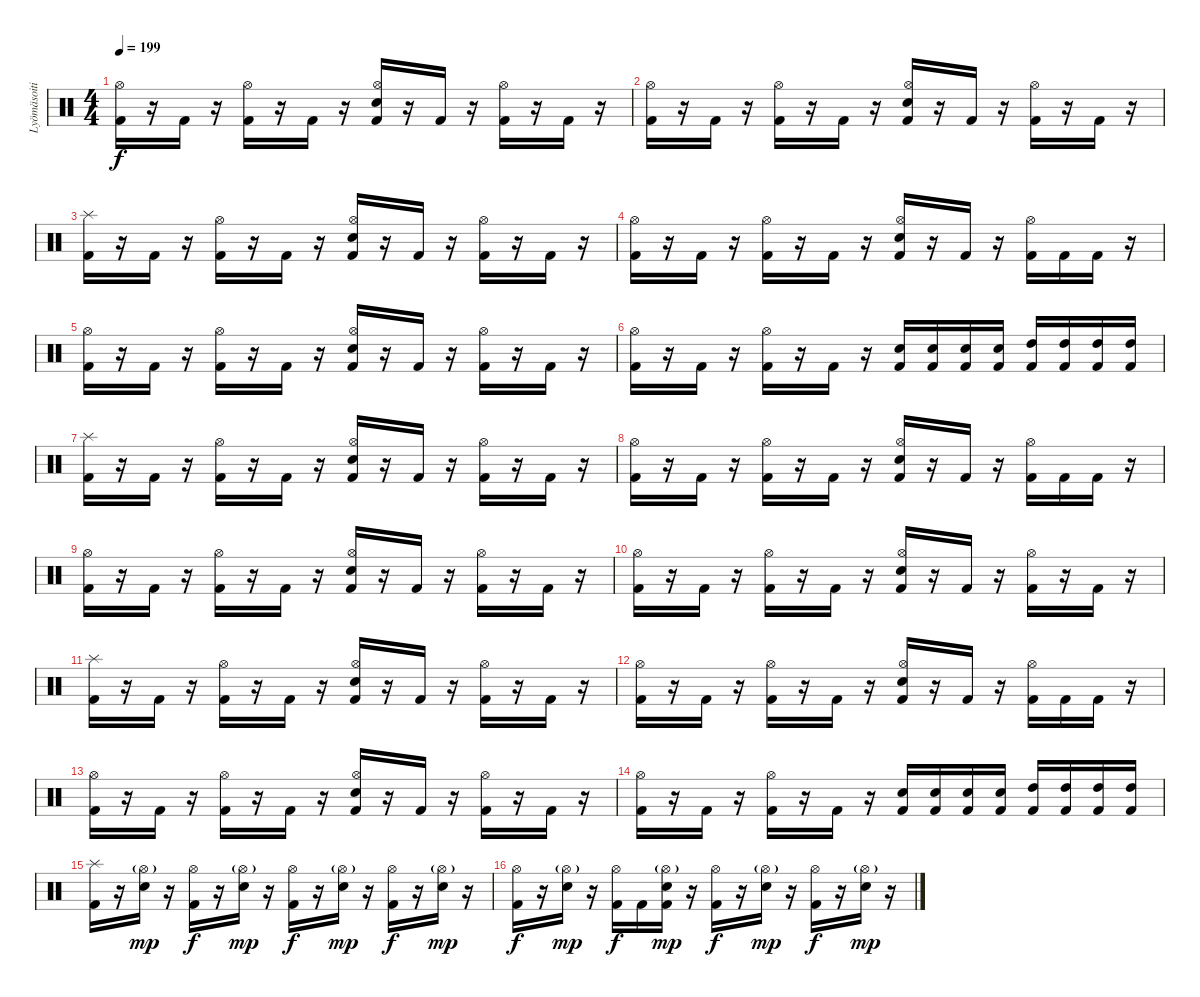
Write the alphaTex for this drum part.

\track ("Lyömäsoitin" "Lyömäsoiti") {instrument percussion}
\staff {score}
\articulation defaults
\ts (4 4)
\tempo 199
\clef neutral
\ks c
("Kick (hit) 2" "Hi-Hat (open)").16{dy f} r.16 "Kick (hit) 2".16 r.16 ("Kick (hit) 2" "Hi-Hat (open)").16 r.16 "Kick (hit) 2".16 r.16 ("Kick (hit) 2" "Hi-Hat (open)" "Snare (hit) 2").16 r.16 "Kick (hit) 2".16 r.16 ("Kick (hit) 2" "Hi-Hat (open)").16 r.16 "Kick (hit) 2".16 r.16 |
("Kick (hit) 2" "Hi-Hat (open)").16 r.16 "Kick (hit) 2".16 r.16 ("Kick (hit) 2" "Hi-Hat (open)").16 r.16 "Kick (hit) 2".16 r.16 ("Kick (hit) 2" "Hi-Hat (open)" "Snare (hit) 2").16 r.16 "Kick (hit) 2".16 r.16 ("Kick (hit) 2" "Hi-Hat (open)").16 r.16 "Kick (hit) 2".16 r.16 |
("Kick (hit) 2" "Splash (hit)").16 r.16 "Kick (hit) 2".16 r.16 ("Kick (hit) 2" "Hi-Hat (open)").16 r.16 "Kick (hit) 2".16 r.16 ("Kick (hit) 2" "Hi-Hat (open)" "Snare (hit) 2").16 r.16 "Kick (hit) 2".16 r.16 ("Kick (hit) 2" "Hi-Hat (open)").16 r.16 "Kick (hit) 2".16 r.16 |
("Kick (hit) 2" "Hi-Hat (open)").16 r.16 "Kick (hit) 2".16 r.16 ("Kick (hit) 2" "Hi-Hat (open)").16 r.16 "Kick (hit) 2".16 r.16 ("Kick (hit) 2" "Hi-Hat (open)" "Snare (hit) 2").16 r.16 "Kick (hit) 2".16 r.16 ("Kick (hit) 2" "Hi-Hat (open)").16 "Kick (hit) 2".16 "Kick (hit) 2".16 r.16 |
("Kick (hit) 2" "Hi-Hat (open)").16 r.16 "Kick (hit) 2".16 r.16 ("Kick (hit) 2" "Hi-Hat (open)").16 r.16 "Kick (hit) 2".16 r.16 ("Kick (hit) 2" "Hi-Hat (open)" "Snare (hit) 2").16 r.16 "Kick (hit) 2".16 r.16 ("Kick (hit) 2" "Hi-Hat (open)").16 r.16 "Kick (hit) 2".16 r.16 |
("Kick (hit) 2" "Hi-Hat (open)").16 r.16 "Kick (hit) 2".16 r.16 ("Kick (hit) 2" "Hi-Hat (open)").16 r.16 "Kick (hit) 2".16 r.16 ("Kick (hit) 2" "Snare (hit) 2").16 ("Kick (hit) 2" "Snare (hit) 2").16 ("Kick (hit) 2" "Snare (hit) 2").16 ("Kick (hit) 2" "Snare (hit) 2").16 ("Kick (hit) 2" "High Tom (hit)").16 ("Kick (hit) 2" "High Tom (hit)").16 ("Kick (hit) 2" "High Tom (hit)").16 ("Kick (hit) 2" "High Tom (hit)").16 |
("Kick (hit) 2" "Splash (hit)").16 r.16 "Kick (hit) 2".16 r.16 ("Kick (hit) 2" "Hi-Hat (open)").16 r.16 "Kick (hit) 2".16 r.16 ("Kick (hit) 2" "Hi-Hat (open)" "Snare (hit) 2").16 r.16 "Kick (hit) 2".16 r.16 ("Kick (hit) 2" "Hi-Hat (open)").16 r.16 "Kick (hit) 2".16 r.16 |
("Kick (hit) 2" "Hi-Hat (open)").16 r.16 "Kick (hit) 2".16 r.16 ("Kick (hit) 2" "Hi-Hat (open)").16 r.16 "Kick (hit) 2".16 r.16 ("Kick (hit) 2" "Hi-Hat (open)" "Snare (hit) 2").16 r.16 "Kick (hit) 2".16 r.16 ("Kick (hit) 2" "Hi-Hat (open)").16 "Kick (hit) 2".16 "Kick (hit) 2".16 r.16 |
("Kick (hit) 2" "Hi-Hat (open)").16 r.16 "Kick (hit) 2".16 r.16 ("Kick (hit) 2" "Hi-Hat (open)").16 r.16 "Kick (hit) 2".16 r.16 ("Kick (hit) 2" "Hi-Hat (open)" "Snare (hit) 2").16 r.16 "Kick (hit) 2".16 r.16 ("Kick (hit) 2" "Hi-Hat (open)").16 r.16 "Kick (hit) 2".16 r.16 |
("Kick (hit) 2" "Hi-Hat (open)").16 r.16 "Kick (hit) 2".16 r.16 ("Kick (hit) 2" "Hi-Hat (open)").16 r.16 "Kick (hit) 2".16 r.16 ("Kick (hit) 2" "Hi-Hat (open)" "Snare (hit) 2").16 r.16 "Kick (hit) 2".16 r.16 ("Kick (hit) 2" "Hi-Hat (open)").16 r.16 "Kick (hit) 2".16 r.16 |
("Kick (hit) 2" "Splash (hit)").16 r.16 "Kick (hit) 2".16 r.16 ("Kick (hit) 2" "Hi-Hat (open)").16 r.16 "Kick (hit) 2".16 r.16 ("Kick (hit) 2" "Hi-Hat (open)" "Snare (hit) 2").16 r.16 "Kick (hit) 2".16 r.16 ("Kick (hit) 2" "Hi-Hat (open)").16 r.16 "Kick (hit) 2".16 r.16 |
("Kick (hit) 2" "Hi-Hat (open)").16 r.16 "Kick (hit) 2".16 r.16 ("Kick (hit) 2" "Hi-Hat (open)").16 r.16 "Kick (hit) 2".16 r.16 ("Kick (hit) 2" "Hi-Hat (open)" "Snare (hit) 2").16 r.16 "Kick (hit) 2".16 r.16 ("Kick (hit) 2" "Hi-Hat (open)").16 "Kick (hit) 2".16 "Kick (hit) 2".16 r.16 |
("Kick (hit) 2" "Hi-Hat (open)").16 r.16 "Kick (hit) 2".16 r.16 ("Kick (hit) 2" "Hi-Hat (open)").16 r.16 "Kick (hit) 2".16 r.16 ("Kick (hit) 2" "Hi-Hat (open)" "Snare (hit) 2").16 r.16 "Kick (hit) 2".16 r.16 ("Kick (hit) 2" "Hi-Hat (open)").16 r.16 "Kick (hit) 2".16 r.16 |
("Kick (hit) 2" "Hi-Hat (open)").16 r.16 "Kick (hit) 2".16 r.16 ("Kick (hit) 2" "Hi-Hat (open)").16 r.16 "Kick (hit) 2".16 r.16 ("Kick (hit) 2" "Snare (hit) 2").16 ("Kick (hit) 2" "Snare (hit) 2").16 ("Kick (hit) 2" "Snare (hit) 2").16 ("Kick (hit) 2" "Snare (hit) 2").16 ("Kick (hit) 2" "High Tom (hit)").16 ("Kick (hit) 2" "High Tom (hit)").16 ("Kick (hit) 2" "High Tom (hit)").16 ("Kick (hit) 2" "High Tom (hit)").16 |
("Kick (hit) 2" "Splash (hit)").16 r.16 ("Hi-Hat (open)"{g} "Snare (hit) 2").16{dy mp} r.16 ("Kick (hit) 2" "Hi-Hat (open)").16{dy f} r.16 ("Hi-Hat (open)"{g} "Snare (hit) 2").16{dy mp} r.16 ("Kick (hit) 2" "Hi-Hat (open)").16{dy f} r.16 ("Hi-Hat (open)"{g} "Snare (hit) 2").16{dy mp} r.16 ("Kick (hit) 2" "Hi-Hat (open)").16{dy f} r.16 ("Hi-Hat (open)"{g} "Snare (hit) 2").16{dy mp} r.16 |
("Kick (hit) 2" "Hi-Hat (open)").16{dy f} r.16 ("Hi-Hat (open)"{g} "Snare (hit) 2").16{dy mp} r.16 ("Kick (hit) 2" "Hi-Hat (open)").16{dy f} "Kick (hit) 2".16 ("Kick (hit) 2" "Hi-Hat (open)"{g} "Snare (hit) 2").16{dy mp} r.16 ("Kick (hit) 2" "Hi-Hat (open)").16{dy f} r.16 ("Hi-Hat (open)"{g} "Snare (hit) 2").16{dy mp} r.16 ("Kick (hit) 2" "Hi-Hat (open)").16{dy f} r.16 ("Hi-Hat (open)"{g} "Snare (hit) 2").16{dy mp} r.16
